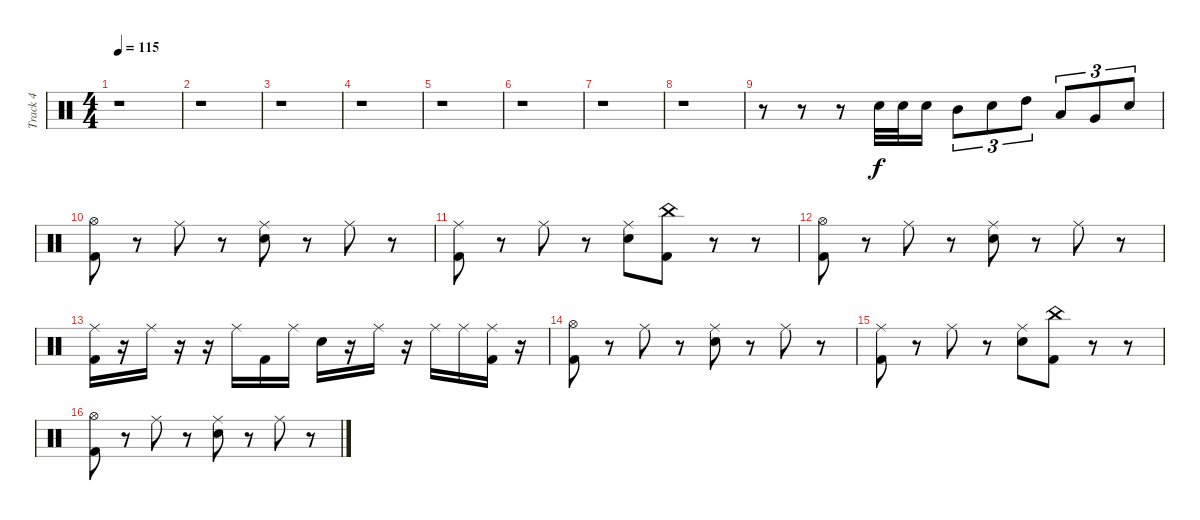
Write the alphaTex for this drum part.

\track ("Track 4" "Track 4") {instrument percussion}
\staff {score}
\articulation defaults
\ts (4 4)
\tempo 115
\clef neutral
\ks c
r.1{dy f} |
r.1 |
r.1 |
r.1 |
r.1 |
r.1 |
r.1 |
r.1 |
r.8 r.8 r.8 "Electric Snare (hit)".32 "Electric Snare (hit)".32 "Electric Snare (hit)".16 "Mid Tom (hit)".8{tu (3 2)} "Electric Snare (hit)".8{tu (3 2)} "High Tom (hit)".8{tu (3 2)} "Low Tom (hit)".8{tu (3 2)} "Very Low Tom (hit)".8{tu (3 2)} "Electric Snare (hit)".8{tu (3 2)} |
("Hi-Hat (open)" "Kick (hit) 2").8 r.8 "Ride (middle)".8 r.8 ("Ride (middle)" "Electric Snare (hit)").8 r.8 "Ride (middle)".8 r.8 |
("Ride (middle)" "Kick (hit) 2").8 r.8 "Ride (middle)".8 r.8 ("Ride (middle)" "Electric Snare (hit)").8 ("China (hit)" "Kick (hit) 2").8 r.8 r.8 |
("Hi-Hat (open)" "Kick (hit) 2").8 r.8 "Ride (middle)".8 r.8 ("Ride (middle)" "Electric Snare (hit)").8 r.8 "Ride (middle)".8 r.8 |
("Ride (middle)" "Kick (hit) 2").16 r.16 "Ride (middle)".16 r.16 r.16 "Ride (middle)".16 "Kick (hit) 2".16 "Ride (middle)".16 "Electric Snare (hit)".16 r.16 "Ride (middle)".16 r.16 "Ride (middle)".16 "Ride (middle)".16 ("Ride (middle)" "Kick (hit) 2").16 r.16 |
("Hi-Hat (open)" "Kick (hit) 2").8 r.8 "Ride (middle)".8 r.8 ("Ride (middle)" "Electric Snare (hit)").8 r.8 "Ride (middle)".8 r.8 |
("Ride (middle)" "Kick (hit) 2").8 r.8 "Ride (middle)".8 r.8 ("Ride (middle)" "Electric Snare (hit)").8 ("China (hit)" "Kick (hit) 2").8 r.8 r.8 |
("Hi-Hat (open)" "Kick (hit) 2").8 r.8 "Ride (middle)".8 r.8 ("Ride (middle)" "Electric Snare (hit)").8 r.8 "Ride (middle)".8 r.8
